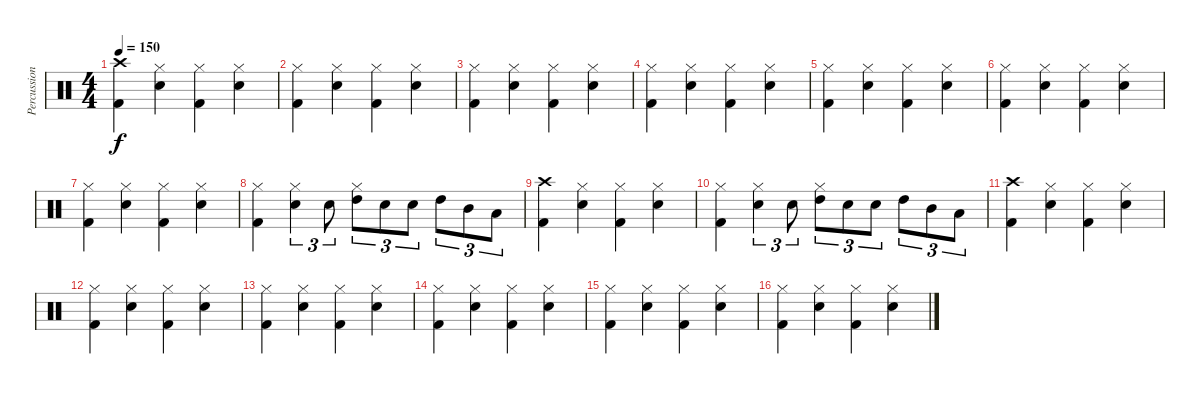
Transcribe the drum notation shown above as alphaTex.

\track ("Percussion" "Percussion") {instrument percussion}
\staff {score}
\articulation defaults
\ts (4 4)
\tempo 150
\clef neutral
\ks c
("Crash high (hit)" "Kick (hit) 2").4{dy f} ("Hi-Hat (closed)" "Electric Snare (hit)").4 ("Hi-Hat (closed)" "Kick (hit) 2").4 ("Hi-Hat (closed)" "Electric Snare (hit)").4 |
("Hi-Hat (closed)" "Kick (hit) 2").4 ("Hi-Hat (closed)" "Electric Snare (hit)").4 ("Hi-Hat (closed)" "Kick (hit) 2").4 ("Hi-Hat (closed)" "Electric Snare (hit)").4 |
("Hi-Hat (closed)" "Kick (hit) 2").4 ("Hi-Hat (closed)" "Electric Snare (hit)").4 ("Hi-Hat (closed)" "Kick (hit) 2").4 ("Hi-Hat (closed)" "Electric Snare (hit)").4 |
("Hi-Hat (closed)" "Kick (hit) 2").4 ("Hi-Hat (closed)" "Electric Snare (hit)").4 ("Hi-Hat (closed)" "Kick (hit) 2").4 ("Hi-Hat (closed)" "Electric Snare (hit)").4 |
("Hi-Hat (closed)" "Kick (hit) 2").4 ("Hi-Hat (closed)" "Electric Snare (hit)").4 ("Hi-Hat (closed)" "Kick (hit) 2").4 ("Hi-Hat (closed)" "Electric Snare (hit)").4 |
("Hi-Hat (closed)" "Kick (hit) 2").4 ("Hi-Hat (closed)" "Electric Snare (hit)").4 ("Hi-Hat (closed)" "Kick (hit) 2").4 ("Hi-Hat (closed)" "Electric Snare (hit)").4 |
("Hi-Hat (closed)" "Kick (hit) 2").4 ("Hi-Hat (closed)" "Electric Snare (hit)").4 ("Hi-Hat (closed)" "Kick (hit) 2").4 ("Hi-Hat (closed)" "Electric Snare (hit)").4 |
("Hi-Hat (closed)" "Kick (hit) 2").4 ("Hi-Hat (closed)" "Electric Snare (hit)").4{tu (3 2)} "Electric Snare (hit)".8{tu (3 2)} ("Hi-Hat (closed)" "High Tom (hit)").8{tu (3 2)} "Electric Snare (hit)".8{tu (3 2)} "Electric Snare (hit)".8{tu (3 2)} "High Tom (hit)".8{tu (3 2)} "Mid Tom (hit)".8{tu (3 2)} "Low Tom (hit)".8{tu (3 2)} |
("Crash high (hit)" "Kick (hit) 2").4 ("Hi-Hat (closed)" "Electric Snare (hit)").4 ("Hi-Hat (closed)" "Kick (hit) 2").4 ("Hi-Hat (closed)" "Electric Snare (hit)").4 |
("Hi-Hat (closed)" "Kick (hit) 2").4 ("Hi-Hat (closed)" "Electric Snare (hit)").4{tu (3 2)} "Electric Snare (hit)".8{tu (3 2)} ("Hi-Hat (closed)" "High Tom (hit)").8{tu (3 2)} "Electric Snare (hit)".8{tu (3 2)} "Electric Snare (hit)".8{tu (3 2)} "High Tom (hit)".8{tu (3 2)} "Mid Tom (hit)".8{tu (3 2)} "Low Tom (hit)".8{tu (3 2)} |
("Crash high (hit)" "Kick (hit) 2").4 ("Hi-Hat (closed)" "Electric Snare (hit)").4 ("Hi-Hat (closed)" "Kick (hit) 2").4 ("Hi-Hat (closed)" "Electric Snare (hit)").4 |
("Hi-Hat (closed)" "Kick (hit) 2").4 ("Hi-Hat (closed)" "Electric Snare (hit)").4 ("Hi-Hat (closed)" "Kick (hit) 2").4 ("Hi-Hat (closed)" "Electric Snare (hit)").4 |
("Hi-Hat (closed)" "Kick (hit) 2").4 ("Hi-Hat (closed)" "Electric Snare (hit)").4 ("Hi-Hat (closed)" "Kick (hit) 2").4 ("Hi-Hat (closed)" "Electric Snare (hit)").4 |
("Hi-Hat (closed)" "Kick (hit) 2").4 ("Hi-Hat (closed)" "Electric Snare (hit)").4 ("Hi-Hat (closed)" "Kick (hit) 2").4 ("Hi-Hat (closed)" "Electric Snare (hit)").4 |
("Hi-Hat (closed)" "Kick (hit) 2").4 ("Hi-Hat (closed)" "Electric Snare (hit)").4 ("Hi-Hat (closed)" "Kick (hit) 2").4 ("Hi-Hat (closed)" "Electric Snare (hit)").4 |
("Hi-Hat (closed)" "Kick (hit) 2").4 ("Hi-Hat (closed)" "Electric Snare (hit)").4 ("Hi-Hat (closed)" "Kick (hit) 2").4 ("Hi-Hat (closed)" "Electric Snare (hit)").4
